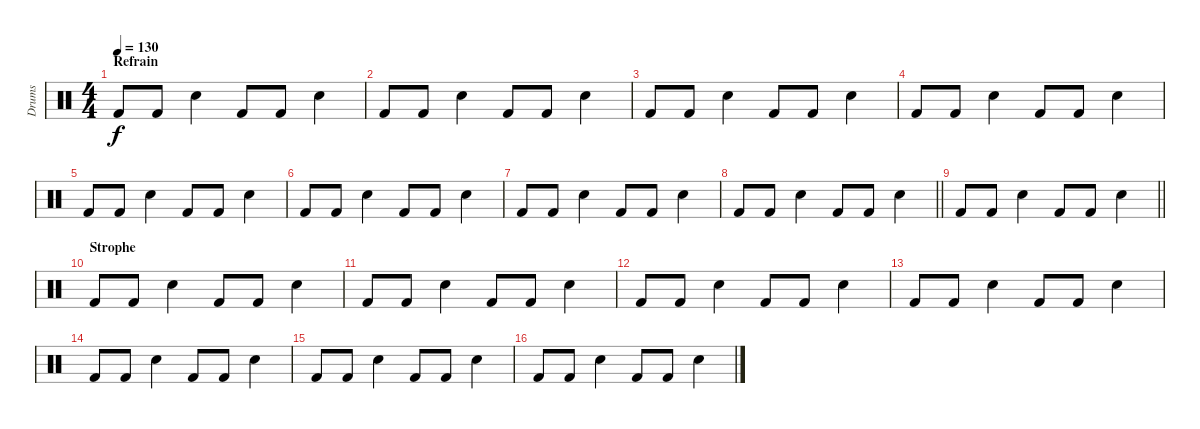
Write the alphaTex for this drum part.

\track ("Drums" "Drums") {instrument percussion}
\staff {score}
\articulation defaults
\ts (4 4)
\section ("" "Refrain")
\tempo 130
\clef neutral
\ks c "Kick (hit) 2".8{dy f} "Kick (hit) 2".8 "Snare (hit) 2".4 "Kick (hit) 2".8 "Kick (hit) 2".8 "Snare (hit) 2".4
|
"Kick (hit) 2".8 "Kick (hit) 2".8 "Snare (hit) 2".4 "Kick (hit) 2".8 "Kick (hit) 2".8 "Snare (hit) 2".4 |
"Kick (hit) 2".8 "Kick (hit) 2".8 "Snare (hit) 2".4 "Kick (hit) 2".8 "Kick (hit) 2".8 "Snare (hit) 2".4 |
"Kick (hit) 2".8 "Kick (hit) 2".8 "Snare (hit) 2".4 "Kick (hit) 2".8 "Kick (hit) 2".8 "Snare (hit) 2".4 |
"Kick (hit) 2".8 "Kick (hit) 2".8 "Snare (hit) 2".4 "Kick (hit) 2".8 "Kick (hit) 2".8 "Snare (hit) 2".4 |
"Kick (hit) 2".8 "Kick (hit) 2".8 "Snare (hit) 2".4 "Kick (hit) 2".8 "Kick (hit) 2".8 "Snare (hit) 2".4 |
"Kick (hit) 2".8 "Kick (hit) 2".8 "Snare (hit) 2".4 "Kick (hit) 2".8 "Kick (hit) 2".8 "Snare (hit) 2".4 |
\barLineRight lightlight "Kick (hit) 2".8 "Kick (hit) 2".8 "Snare (hit) 2".4 "Kick (hit) 2".8 "Kick (hit) 2".8 "Snare (hit) 2".4
|
\barLineRight lightlight "Kick (hit) 2".8 "Kick (hit) 2".8 "Snare (hit) 2".4 "Kick (hit) 2".8 "Kick (hit) 2".8 "Snare (hit) 2".4
|
\section ("" "Strophe")
"Kick (hit) 2".8 "Kick (hit) 2".8 "Snare (hit) 2".4 "Kick (hit) 2".8 "Kick (hit) 2".8 "Snare (hit) 2".4 |
"Kick (hit) 2".8 "Kick (hit) 2".8 "Snare (hit) 2".4 "Kick (hit) 2".8 "Kick (hit) 2".8 "Snare (hit) 2".4 |
"Kick (hit) 2".8 "Kick (hit) 2".8 "Snare (hit) 2".4 "Kick (hit) 2".8 "Kick (hit) 2".8 "Snare (hit) 2".4 |
"Kick (hit) 2".8 "Kick (hit) 2".8 "Snare (hit) 2".4 "Kick (hit) 2".8 "Kick (hit) 2".8 "Snare (hit) 2".4 |
"Kick (hit) 2".8 "Kick (hit) 2".8 "Snare (hit) 2".4 "Kick (hit) 2".8 "Kick (hit) 2".8 "Snare (hit) 2".4 |
"Kick (hit) 2".8 "Kick (hit) 2".8 "Snare (hit) 2".4 "Kick (hit) 2".8 "Kick (hit) 2".8 "Snare (hit) 2".4 |
"Kick (hit) 2".8 "Kick (hit) 2".8 "Snare (hit) 2".4 "Kick (hit) 2".8 "Kick (hit) 2".8 "Snare (hit) 2".4
